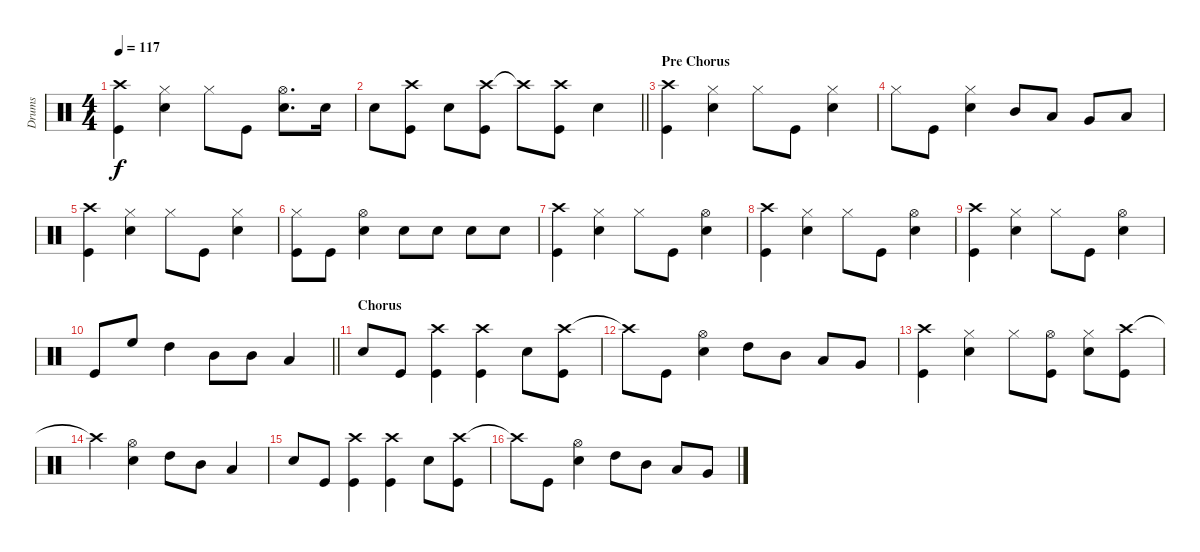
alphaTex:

\track ("Drums" "Drums") {instrument percussion}
\staff {score}
\articulation defaults
\ts (4 4)
\tempo 117
\clef neutral
\ks c
("Kick (hit)" "Crash high (hit)").4{dy f} ("Hi-Hat (closed)" "Snare (hit) 2").4 "Hi-Hat (closed)".8 "Kick (hit)".8 ("Hi-Hat (open)" "Snare (hit) 2").8{d} "Snare (hit) 2".16 |
\barLineRight lightlight "Snare (hit) 2".8
("Crash high (hit)" "Kick (hit)").8 "Snare (hit) 2".8 ("Crash high (hit)" "Kick (hit)").8 "Crash high (hit)"{t}.8 ("Crash high (hit)" "Kick (hit)").8 "Snare (hit) 2".4 |
\section ("" "Pre Chorus")
("Crash high (hit)" "Kick (hit)").4 ("Hi-Hat (closed)" "Snare (hit) 2").4 "Hi-Hat (closed)".8 "Kick (hit)".8 ("Hi-Hat (closed)" "Snare (hit) 2").4 |
"Hi-Hat (closed)".8 "Kick (hit)".8 ("Hi-Hat (closed)" "Snare (hit) 2").4 "Mid Tom (hit)".8 "Low Tom (hit)".8 "Very Low Tom (hit)".8 "Low Floor Tom (hit)".8 |
("Crash high (hit)" "Kick (hit)").4 ("Hi-Hat (closed)" "Snare (hit) 2").4 "Hi-Hat (closed)".8 "Kick (hit)".8 ("Hi-Hat (closed)" "Snare (hit) 2").4 |
("Hi-Hat (closed)" "Kick (hit)").8 "Kick (hit)".8 ("Hi-Hat (open)" "Snare (hit) 2").4 "Snare (hit) 2".8 "Snare (hit) 2".8 "Snare (hit) 2".8 "Snare (hit) 2".8 |
("Kick (hit)" "Crash high (hit)").4 ("Hi-Hat (closed)" "Snare (hit) 2").4 "Hi-Hat (closed)".8 "Kick (hit)".8 ("Hi-Hat (open)" "Snare (hit) 2").4 |
("Kick (hit)" "Crash high (hit)").4 ("Hi-Hat (closed)" "Snare (hit) 2").4 "Hi-Hat (closed)".8 "Kick (hit)".8 ("Hi-Hat (open)" "Snare (hit) 2").4 |
("Kick (hit)" "Crash high (hit)").4 ("Hi-Hat (closed)" "Snare (hit) 2").4 "Hi-Hat (closed)".8 "Kick (hit)".8 ("Hi-Hat (open)" "Snare (hit) 2").4 |
\barLineRight lightlight "Kick (hit)".8 "High Floor Tom (hit)".8 "High Tom (hit)".4 "Mid Tom (hit)".8 "Mid Tom (hit)".8 "Low Tom (hit)".4
|
\section ("" "Chorus")
"Snare (hit) 2".8 "Kick (hit)".8 ("Crash high (hit)" "Kick (hit)").4 ("Crash high (hit)" "Kick (hit)").4 "Snare (hit) 2".8 ("Crash high (hit)" "Kick (hit)").8 |
"Crash high (hit)"{t}.8 "Kick (hit)".8 ("Hi-Hat (open)" "Snare (hit) 2").4 "High Tom (hit)".8 "Mid Tom (hit)".8 "Low Tom (hit)".8 "Very Low Tom (hit)".8 |
("Crash high (hit)" "Kick (hit)").4 ("Hi-Hat (closed)" "Snare (hit) 2").4 "Hi-Hat (closed)".8 ("Hi-Hat (open)" "Kick (hit)").8 ("Hi-Hat (closed)" "Snare (hit) 2").8 ("Crash high (hit)" "Kick (hit)").8 |
"Crash high (hit)"{t}.4 ("Hi-Hat (open)" "Snare (hit) 2").4 "High Tom (hit)".8 "Mid Tom (hit)".8 "Low Tom (hit)".4 |
"Snare (hit) 2".8 "Kick (hit)".8 ("Crash high (hit)" "Kick (hit)").4 ("Crash high (hit)" "Kick (hit)").4 "Snare (hit) 2".8 ("Crash high (hit)" "Kick (hit)").8 |
"Crash high (hit)"{t}.8 "Kick (hit)".8 ("Hi-Hat (open)" "Snare (hit) 2").4 "High Tom (hit)".8 "Mid Tom (hit)".8 "Low Tom (hit)".8 "Very Low Tom (hit)".8
